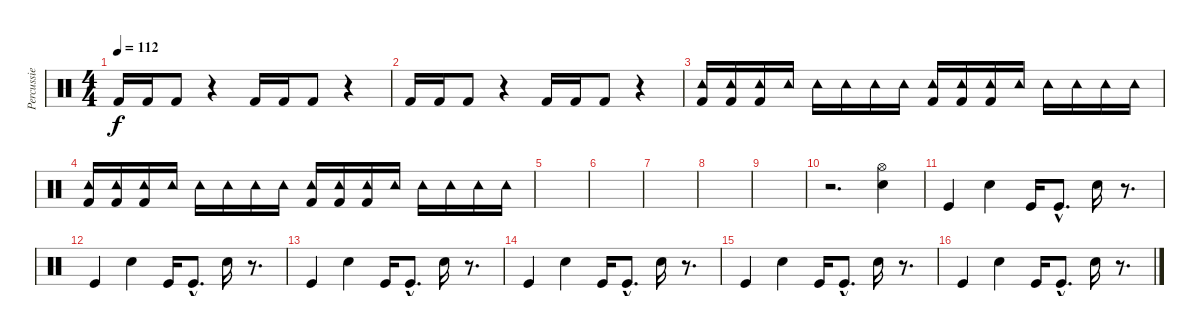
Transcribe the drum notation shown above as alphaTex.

\track ("Percussie" "Percussie") {instrument percussion}
\staff {score}
\articulation defaults
\ts (4 4)
\tempo 112
\clef neutral
\ks c "Kick (hit) 2".16{dy f} "Kick (hit) 2".16 "Kick (hit) 2".8
r.4 "Kick (hit) 2".16 "Kick (hit) 2".16 "Kick (hit) 2".8 r.4 |
"Kick (hit) 2".16 "Kick (hit) 2".16 "Kick (hit) 2".8 r.4 "Kick (hit) 2".16 "Kick (hit) 2".16 "Kick (hit) 2".8 r.4 |
("Kick (hit) 2" "Tambourine (hit)").16 ("Kick (hit) 2" "Tambourine (hit)").16 ("Kick (hit) 2" "Tambourine (hit)").16 "Tambourine (hit)".16 "Tambourine (hit)".16 "Tambourine (hit)".16 "Tambourine (hit)".16 "Tambourine (hit)".16 ("Kick (hit) 2" "Tambourine (hit)").16 ("Kick (hit) 2" "Tambourine (hit)").16 ("Kick (hit) 2" "Tambourine (hit)").16 "Tambourine (hit)".16 "Tambourine (hit)".16 "Tambourine (hit)".16 "Tambourine (hit)".16 "Tambourine (hit)".16 |
("Kick (hit) 2" "Tambourine (hit)").16 ("Kick (hit) 2" "Tambourine (hit)").16 ("Kick (hit) 2" "Tambourine (hit)").16 "Tambourine (hit)".16 "Tambourine (hit)".16 "Tambourine (hit)".16 "Tambourine (hit)".16 "Tambourine (hit)".16 ("Kick (hit) 2" "Tambourine (hit)").16 ("Kick (hit) 2" "Tambourine (hit)").16 ("Kick (hit) 2" "Tambourine (hit)").16 "Tambourine (hit)".16 "Tambourine (hit)".16 "Tambourine (hit)".16 "Tambourine (hit)".16 "Tambourine (hit)".16 |
|
|
|
|
|
r.2{d} ("Hi-Hat (open)" "Snare (hit) 2").4 |
"Kick (hit)".4 "Electric Snare (hit)".4 "Kick (hit)".16 "Kick (hit)"{hac}.8{d} "Electric Snare (hit)".16 r.8{d} |
"Kick (hit)".4 "Electric Snare (hit)".4 "Kick (hit)".16 "Kick (hit)"{hac}.8{d} "Electric Snare (hit)".16 r.8{d} |
"Kick (hit)".4 "Electric Snare (hit)".4 "Kick (hit)".16 "Kick (hit)"{hac}.8{d} "Electric Snare (hit)".16 r.8{d} |
"Kick (hit)".4 "Electric Snare (hit)".4 "Kick (hit)".16 "Kick (hit)"{hac}.8{d} "Electric Snare (hit)".16 r.8{d} |
"Kick (hit)".4 "Electric Snare (hit)".4 "Kick (hit)".16 "Kick (hit)"{hac}.8{d} "Electric Snare (hit)".16 r.8{d} |
"Kick (hit)".4 "Electric Snare (hit)".4 "Kick (hit)".16 "Kick (hit)"{hac}.8{d} "Electric Snare (hit)".16 r.8{d}
